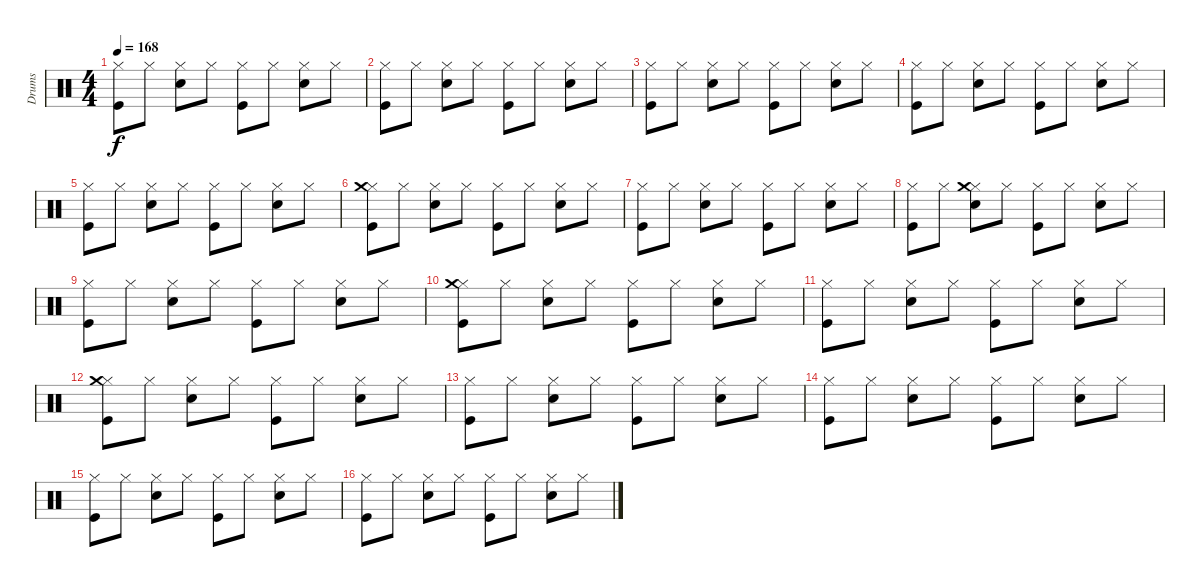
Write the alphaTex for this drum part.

\track ("Drums" "Drums") {instrument percussion}
\staff {score}
\articulation defaults
\ts (4 4)
\tempo 168
\clef neutral
\ks c
("Kick (hit)" "Hi-Hat (closed)").8{dy f} "Hi-Hat (closed)".8 ("Snare (hit) 2" "Hi-Hat (closed)").8 "Hi-Hat (closed)".8 ("Kick (hit)" "Hi-Hat (closed)").8 "Hi-Hat (closed)".8 ("Snare (hit) 2" "Hi-Hat (closed)").8 "Hi-Hat (closed)".8 |
("Kick (hit)" "Hi-Hat (closed)").8 "Hi-Hat (closed)".8 ("Snare (hit) 2" "Hi-Hat (closed)").8 "Hi-Hat (closed)".8 ("Kick (hit)" "Hi-Hat (closed)").8 "Hi-Hat (closed)".8 ("Snare (hit) 2" "Hi-Hat (closed)").8 "Hi-Hat (closed)".8 |
("Kick (hit)" "Hi-Hat (closed)").8 "Hi-Hat (closed)".8 ("Snare (hit) 2" "Hi-Hat (closed)").8 "Hi-Hat (closed)".8 ("Kick (hit)" "Hi-Hat (closed)").8 "Hi-Hat (closed)".8 ("Snare (hit) 2" "Hi-Hat (closed)").8 "Hi-Hat (closed)".8 |
("Kick (hit)" "Hi-Hat (closed)").8 "Hi-Hat (closed)".8 ("Snare (hit) 2" "Hi-Hat (closed)").8 "Hi-Hat (closed)".8 ("Kick (hit)" "Hi-Hat (closed)").8 "Hi-Hat (closed)".8 ("Snare (hit) 2" "Hi-Hat (closed)").8 "Hi-Hat (closed)".8 |
("Kick (hit)" "Hi-Hat (closed)").8 "Hi-Hat (closed)".8 ("Snare (hit) 2" "Hi-Hat (closed)").8 "Hi-Hat (closed)".8 ("Kick (hit)" "Hi-Hat (closed)").8 "Hi-Hat (closed)".8 ("Snare (hit) 2" "Hi-Hat (closed)").8 "Hi-Hat (closed)".8 |
("Kick (hit)" "Hi-Hat (closed)" "Crash medium (hit)").8 "Hi-Hat (closed)".8 ("Snare (hit) 2" "Hi-Hat (closed)").8 "Hi-Hat (closed)".8 ("Kick (hit)" "Hi-Hat (closed)").8 "Hi-Hat (closed)".8 ("Snare (hit) 2" "Hi-Hat (closed)").8 "Hi-Hat (closed)".8 |
("Kick (hit)" "Hi-Hat (closed)").8 "Hi-Hat (closed)".8 ("Snare (hit) 2" "Hi-Hat (closed)").8 "Hi-Hat (closed)".8 ("Kick (hit)" "Hi-Hat (closed)").8 "Hi-Hat (closed)".8 ("Snare (hit) 2" "Hi-Hat (closed)").8 "Hi-Hat (closed)".8 |
("Kick (hit)" "Hi-Hat (closed)").8 "Hi-Hat (closed)".8 ("Snare (hit) 2" "Hi-Hat (closed)" "Crash medium (hit)").8 "Hi-Hat (closed)".8 ("Kick (hit)" "Hi-Hat (closed)").8 "Hi-Hat (closed)".8 ("Snare (hit) 2" "Hi-Hat (closed)").8 "Hi-Hat (closed)".8 |
("Kick (hit)" "Hi-Hat (closed)").8 "Hi-Hat (closed)".8 ("Snare (hit) 2" "Hi-Hat (closed)").8 "Hi-Hat (closed)".8 ("Kick (hit)" "Hi-Hat (closed)").8 "Hi-Hat (closed)".8 ("Snare (hit) 2" "Hi-Hat (closed)").8 "Hi-Hat (closed)".8 |
("Kick (hit)" "Hi-Hat (closed)" "Crash medium (hit)").8 "Hi-Hat (closed)".8 ("Snare (hit) 2" "Hi-Hat (closed)").8 "Hi-Hat (closed)".8 ("Kick (hit)" "Hi-Hat (closed)").8 "Hi-Hat (closed)".8 ("Snare (hit) 2" "Hi-Hat (closed)").8 "Hi-Hat (closed)".8 |
("Kick (hit)" "Hi-Hat (closed)").8 "Hi-Hat (closed)".8 ("Snare (hit) 2" "Hi-Hat (closed)").8 "Hi-Hat (closed)".8 ("Kick (hit)" "Hi-Hat (closed)").8 "Hi-Hat (closed)".8 ("Snare (hit) 2" "Hi-Hat (closed)").8 "Hi-Hat (closed)".8 |
("Kick (hit)" "Hi-Hat (closed)" "Crash medium (hit)").8 "Hi-Hat (closed)".8 ("Snare (hit) 2" "Hi-Hat (closed)").8 "Hi-Hat (closed)".8 ("Kick (hit)" "Hi-Hat (closed)").8 "Hi-Hat (closed)".8 ("Snare (hit) 2" "Hi-Hat (closed)").8 "Hi-Hat (closed)".8 |
("Kick (hit)" "Hi-Hat (closed)").8 "Hi-Hat (closed)".8 ("Snare (hit) 2" "Hi-Hat (closed)").8 "Hi-Hat (closed)".8 ("Kick (hit)" "Hi-Hat (closed)").8 "Hi-Hat (closed)".8 ("Snare (hit) 2" "Hi-Hat (closed)").8 "Hi-Hat (closed)".8 |
("Kick (hit)" "Hi-Hat (closed)").8 "Hi-Hat (closed)".8 ("Snare (hit) 2" "Hi-Hat (closed)").8 "Hi-Hat (closed)".8 ("Kick (hit)" "Hi-Hat (closed)").8 "Hi-Hat (closed)".8 ("Snare (hit) 2" "Hi-Hat (closed)").8 "Hi-Hat (closed)".8 |
("Kick (hit)" "Hi-Hat (closed)").8 "Hi-Hat (closed)".8 ("Snare (hit) 2" "Hi-Hat (closed)").8 "Hi-Hat (closed)".8 ("Kick (hit)" "Hi-Hat (closed)").8 "Hi-Hat (closed)".8 ("Snare (hit) 2" "Hi-Hat (closed)").8 "Hi-Hat (closed)".8 |
("Kick (hit)" "Hi-Hat (closed)").8 "Hi-Hat (closed)".8 ("Snare (hit) 2" "Hi-Hat (closed)").8 "Hi-Hat (closed)".8 ("Kick (hit)" "Hi-Hat (closed)").8 "Hi-Hat (closed)".8 ("Snare (hit) 2" "Hi-Hat (closed)").8 "Hi-Hat (closed)".8
